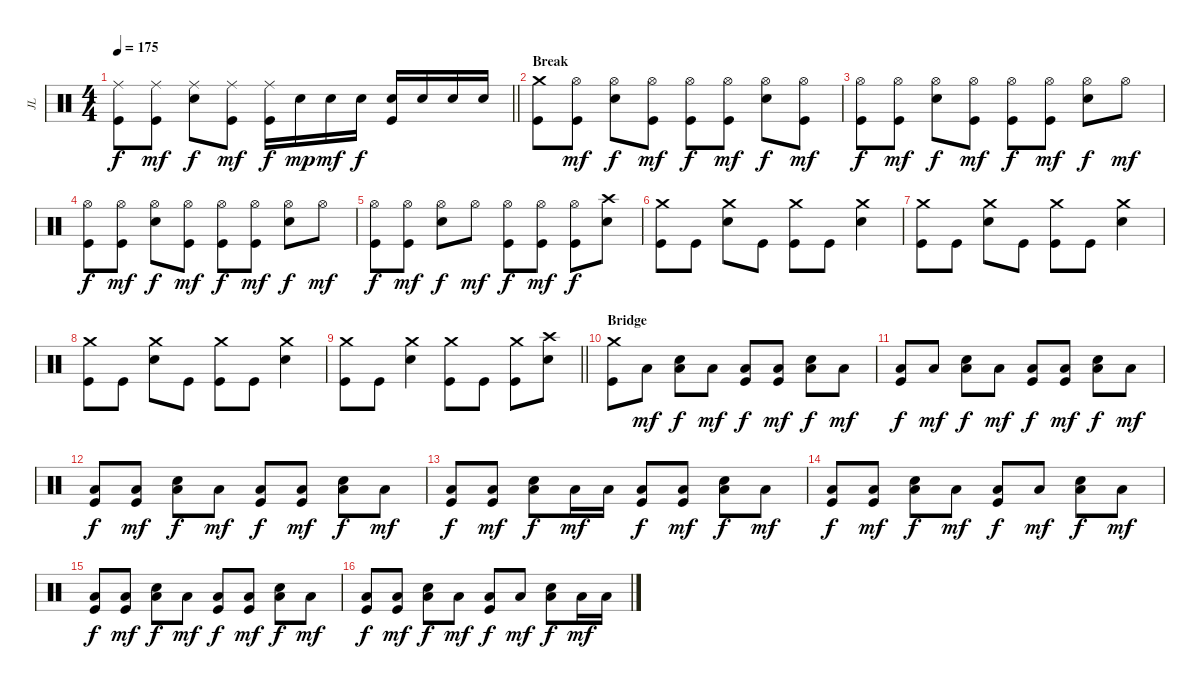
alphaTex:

\track ("JL" "JL") {instrument percussion}
\staff {score}
\articulation defaults
\ts (4 4)
\tempo 175
\clef neutral
\barLineRight lightlight
\ks c
("Ride (middle)" "Kick (hit)").8{dy f} ("Ride (middle)" "Kick (hit)").8{dy mf} ("Ride (middle)" "Electric Snare (hit)").8{dy f} ("Ride (middle)" "Kick (hit)").8{dy mf} ("Ride (middle)" "Kick (hit)").16{dy f} "Electric Snare (hit)".16{dy mp} "Electric Snare (hit)".16{dy mf} "Electric Snare (hit)".16{dy f} ("Electric Snare (hit)" "Kick (hit)").16 "Electric Snare (hit)".16 "Electric Snare (hit)".16 "Electric Snare (hit)".16 |
\section ("" "Break")
("Crash medium (hit)" "Kick (hit)").8 ("Hi-Hat (open)" "Kick (hit)").8{dy mf} ("Hi-Hat (open)" "Electric Snare (hit)").8{dy f} ("Hi-Hat (open)" "Kick (hit)").8{dy mf} ("Hi-Hat (open)" "Kick (hit)").8{dy f} ("Hi-Hat (open)" "Kick (hit)").8{dy mf} ("Hi-Hat (open)" "Electric Snare (hit)").8{dy f} ("Hi-Hat (open)" "Kick (hit)").8{dy mf} |
("Hi-Hat (open)" "Kick (hit)").8{dy f} ("Hi-Hat (open)" "Kick (hit)").8{dy mf} ("Hi-Hat (open)" "Electric Snare (hit)").8{dy f} ("Hi-Hat (open)" "Kick (hit)").8{dy mf} ("Hi-Hat (open)" "Kick (hit)").8{dy f} ("Hi-Hat (open)" "Kick (hit)").8{dy mf} ("Hi-Hat (open)" "Electric Snare (hit)").8{dy f} "Hi-Hat (open)".8{dy mf} |
("Hi-Hat (open)" "Kick (hit)").8{dy f} ("Hi-Hat (open)" "Kick (hit)").8{dy mf} ("Hi-Hat (open)" "Electric Snare (hit)").8{dy f} ("Hi-Hat (open)" "Kick (hit)").8{dy mf} ("Hi-Hat (open)" "Kick (hit)").8{dy f} ("Hi-Hat (open)" "Kick (hit)").8{dy mf} ("Hi-Hat (open)" "Electric Snare (hit)").8{dy f} "Hi-Hat (open)".8{dy mf} |
("Hi-Hat (open)" "Kick (hit)").8{dy f} ("Hi-Hat (open)" "Kick (hit)").8{dy mf} ("Hi-Hat (open)" "Electric Snare (hit)").8{dy f} "Hi-Hat (open)".8{dy mf} ("Hi-Hat (open)" "Kick (hit)").8{dy f} ("Hi-Hat (open)" "Kick (hit)").8{dy mf} ("Hi-Hat (open)" "Kick (hit)").8{dy f} ("Crash high (hit)" "Electric Snare (hit)").8 |
("Crash medium (hit)" "Kick (hit)").8 "Kick (hit)".8 ("Crash medium (hit)" "Electric Snare (hit)").8 "Kick (hit)".8 ("Crash medium (hit)" "Kick (hit)").8 "Kick (hit)".8 ("Crash medium (hit)" "Electric Snare (hit)").4 |
("Crash medium (hit)" "Kick (hit)").8 "Kick (hit)".8 ("Crash medium (hit)" "Electric Snare (hit)").8 "Kick (hit)".8 ("Crash medium (hit)" "Kick (hit)").8 "Kick (hit)".8 ("Crash medium (hit)" "Electric Snare (hit)").4 |
("Crash medium (hit)" "Kick (hit)").8 "Kick (hit)".8 ("Crash medium (hit)" "Electric Snare (hit)").8 "Kick (hit)".8 ("Crash medium (hit)" "Kick (hit)").8 "Kick (hit)".8 ("Crash medium (hit)" "Electric Snare (hit)").4 |
\barLineRight lightlight
("Crash medium (hit)" "Kick (hit)").8 "Kick (hit)".8 ("Crash medium (hit)" "Electric Snare (hit)").4 ("Crash medium (hit)" "Kick (hit)").8 "Kick (hit)".8 ("Crash medium (hit)" "Kick (hit)").8 ("Crash high (hit)" "Electric Snare (hit)").8 |
\section ("" "Bridge")
("Crash medium (hit)" "Kick (hit)").8 "Low Floor Tom (hit)".8{dy mf} ("Electric Snare (hit)" "Low Floor Tom (hit)").8{dy f} "Low Floor Tom (hit)".8{dy mf} ("Low Floor Tom (hit)" "Kick (hit)").8{dy f} ("Low Floor Tom (hit)" "Kick (hit)").8{dy mf} ("Electric Snare (hit)" "Low Floor Tom (hit)").8{dy f} "Low Floor Tom (hit)".8{dy mf} |
("Low Floor Tom (hit)" "Kick (hit)").8{dy f} "Low Floor Tom (hit)".8{dy mf} ("Electric Snare (hit)" "Low Floor Tom (hit)").8{dy f} "Low Floor Tom (hit)".8{dy mf} ("Low Floor Tom (hit)" "Kick (hit)").8{dy f} ("Low Floor Tom (hit)" "Kick (hit)").8{dy mf} ("Electric Snare (hit)" "Low Floor Tom (hit)").8{dy f} "Low Floor Tom (hit)".8{dy mf} |
("Low Floor Tom (hit)" "Kick (hit)").8{dy f} ("Low Floor Tom (hit)" "Kick (hit)").8{dy mf} ("Electric Snare (hit)" "Low Floor Tom (hit)").8{dy f} "Low Floor Tom (hit)".8{dy mf} ("Low Floor Tom (hit)" "Kick (hit)").8{dy f} ("Low Floor Tom (hit)" "Kick (hit)").8{dy mf} ("Electric Snare (hit)" "Low Floor Tom (hit)").8{dy f} "Low Floor Tom (hit)".8{dy mf} |
("Low Floor Tom (hit)" "Kick (hit)").8{dy f} ("Low Floor Tom (hit)" "Kick (hit)").8{dy mf} ("Electric Snare (hit)" "Low Floor Tom (hit)").8{dy f} "Low Floor Tom (hit)".16{dy mf} "Low Floor Tom (hit)".16 ("Low Floor Tom (hit)" "Kick (hit)").8{dy f} ("Low Floor Tom (hit)" "Kick (hit)").8{dy mf} ("Electric Snare (hit)" "Low Floor Tom (hit)").8{dy f} "Low Floor Tom (hit)".8{dy mf} |
("Low Floor Tom (hit)" "Kick (hit)").8{dy f} ("Low Floor Tom (hit)" "Kick (hit)").8{dy mf} ("Electric Snare (hit)" "Low Floor Tom (hit)").8{dy f} "Low Floor Tom (hit)".8{dy mf} ("Low Floor Tom (hit)" "Kick (hit)").8{dy f} "Low Floor Tom (hit)".8{dy mf} ("Electric Snare (hit)" "Low Floor Tom (hit)").8{dy f} "Low Floor Tom (hit)".8{dy mf} |
("Low Floor Tom (hit)" "Kick (hit)").8{dy f} ("Low Floor Tom (hit)" "Kick (hit)").8{dy mf} ("Electric Snare (hit)" "Low Floor Tom (hit)").8{dy f} "Low Floor Tom (hit)".8{dy mf} ("Low Floor Tom (hit)" "Kick (hit)").8{dy f} ("Low Floor Tom (hit)" "Kick (hit)").8{dy mf} ("Electric Snare (hit)" "Low Floor Tom (hit)").8{dy f} "Low Floor Tom (hit)".8{dy mf} |
("Low Floor Tom (hit)" "Kick (hit)").8{dy f} ("Low Floor Tom (hit)" "Kick (hit)").8{dy mf} ("Electric Snare (hit)" "Low Floor Tom (hit)").8{dy f} "Low Floor Tom (hit)".8{dy mf} ("Low Floor Tom (hit)" "Kick (hit)").8{dy f} "Low Floor Tom (hit)".8{dy mf} ("Electric Snare (hit)" "Low Floor Tom (hit)").8{dy f} "Low Floor Tom (hit)".16{dy mf} "Low Floor Tom (hit)".16
